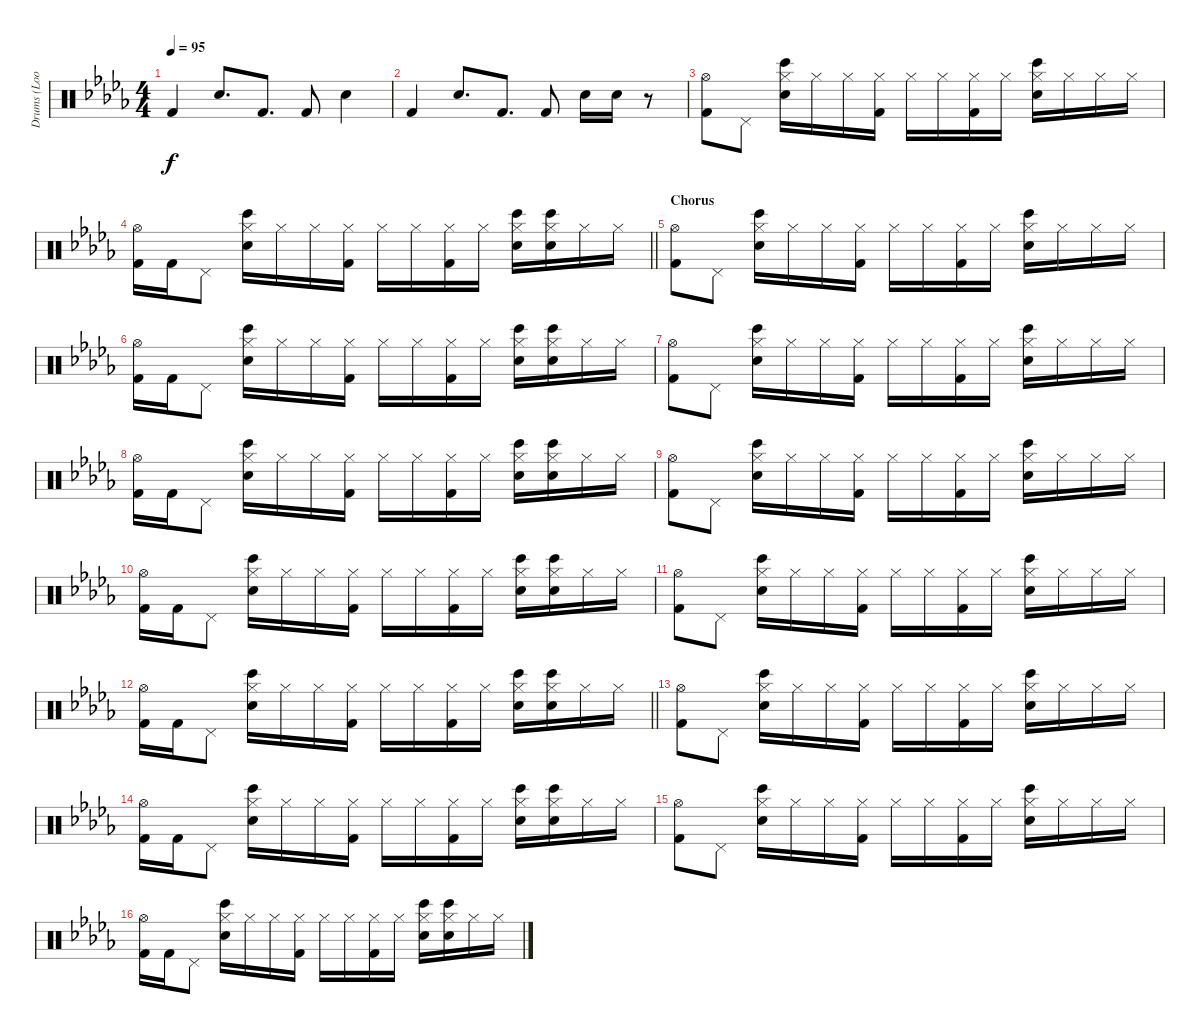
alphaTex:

\track ("Drums (Loops)" "Drums (Loo") {instrument percussion}
\staff {score}
\articulation defaults
\ts (4 4)
\tempo 95
\clef neutral
\ks db "Kick (hit) 2".4{dy f} "Hand Clap (hit)".8{d} "Kick (hit) 2".8{d} "Kick (hit) 2".8 "Hand Clap (hit)".4
|
"Kick (hit) 2".4 "Hand Clap (hit)".8{d} "Kick (hit) 2".8{d} "Kick (hit) 2".8 "Hand Clap (hit)".16 "Hand Clap (hit)".16 r.8 |
("Hi-Hat (open)" "Kick (hit) 2").8 "Pedal Hi-Hat (hit)".8 ("Hi-Hat (closed)" "Snare (hit) 2" "Bongo High (hit)").16 "Hi-Hat (closed)".16 "Hi-Hat (closed)".16 ("Hi-Hat (closed)" "Kick (hit) 2").16 "Hi-Hat (closed)".16 "Hi-Hat (closed)".16 ("Hi-Hat (closed)" "Kick (hit) 2").16 "Hi-Hat (closed)".16 ("Hi-Hat (closed)" "Snare (hit) 2" "Bongo High (hit)").16 "Hi-Hat (closed)".16 "Hi-Hat (closed)".16 "Hi-Hat (closed)".16 |
\barLineRight lightlight
("Hi-Hat (open)" "Kick (hit) 2").16 "Kick (hit) 2".16 "Pedal Hi-Hat (hit)".8 ("Hi-Hat (closed)" "Snare (hit) 2" "Bongo High (hit)").16 "Hi-Hat (closed)".16 "Hi-Hat (closed)".16 ("Hi-Hat (closed)" "Kick (hit) 2").16 "Hi-Hat (closed)".16 "Hi-Hat (closed)".16 ("Hi-Hat (closed)" "Kick (hit) 2").16 "Hi-Hat (closed)".16 ("Hi-Hat (closed)" "Snare (hit) 2" "Bongo High (hit)").16 ("Hi-Hat (closed)" "Snare (hit) 2" "Bongo High (hit)").16 "Hi-Hat (closed)".16 "Hi-Hat (closed)".16 |
\section ("" "Chorus")
("Hi-Hat (open)" "Kick (hit) 2").8 "Pedal Hi-Hat (hit)".8 ("Hi-Hat (closed)" "Snare (hit) 2" "Bongo High (hit)").16 "Hi-Hat (closed)".16 "Hi-Hat (closed)".16 ("Hi-Hat (closed)" "Kick (hit) 2").16 "Hi-Hat (closed)".16 "Hi-Hat (closed)".16 ("Hi-Hat (closed)" "Kick (hit) 2").16 "Hi-Hat (closed)".16 ("Hi-Hat (closed)" "Snare (hit) 2" "Bongo High (hit)").16 "Hi-Hat (closed)".16 "Hi-Hat (closed)".16 "Hi-Hat (closed)".16 |
("Hi-Hat (open)" "Kick (hit) 2").16 "Kick (hit) 2".16 "Pedal Hi-Hat (hit)".8 ("Hi-Hat (closed)" "Snare (hit) 2" "Bongo High (hit)").16 "Hi-Hat (closed)".16 "Hi-Hat (closed)".16 ("Hi-Hat (closed)" "Kick (hit) 2").16 "Hi-Hat (closed)".16 "Hi-Hat (closed)".16 ("Hi-Hat (closed)" "Kick (hit) 2").16 "Hi-Hat (closed)".16 ("Hi-Hat (closed)" "Snare (hit) 2" "Bongo High (hit)").16 ("Hi-Hat (closed)" "Snare (hit) 2" "Bongo High (hit)").16 "Hi-Hat (closed)".16 "Hi-Hat (closed)".16 |
("Hi-Hat (open)" "Kick (hit) 2").8 "Pedal Hi-Hat (hit)".8 ("Hi-Hat (closed)" "Snare (hit) 2" "Bongo High (hit)").16 "Hi-Hat (closed)".16 "Hi-Hat (closed)".16 ("Hi-Hat (closed)" "Kick (hit) 2").16 "Hi-Hat (closed)".16 "Hi-Hat (closed)".16 ("Hi-Hat (closed)" "Kick (hit) 2").16 "Hi-Hat (closed)".16 ("Hi-Hat (closed)" "Snare (hit) 2" "Bongo High (hit)").16 "Hi-Hat (closed)".16 "Hi-Hat (closed)".16 "Hi-Hat (closed)".16 |
("Hi-Hat (open)" "Kick (hit) 2").16 "Kick (hit) 2".16 "Pedal Hi-Hat (hit)".8 ("Hi-Hat (closed)" "Snare (hit) 2" "Bongo High (hit)").16 "Hi-Hat (closed)".16 "Hi-Hat (closed)".16 ("Hi-Hat (closed)" "Kick (hit) 2").16 "Hi-Hat (closed)".16 "Hi-Hat (closed)".16 ("Hi-Hat (closed)" "Kick (hit) 2").16 "Hi-Hat (closed)".16 ("Hi-Hat (closed)" "Snare (hit) 2" "Bongo High (hit)").16 ("Hi-Hat (closed)" "Snare (hit) 2" "Bongo High (hit)").16 "Hi-Hat (closed)".16 "Hi-Hat (closed)".16 |
("Hi-Hat (open)" "Kick (hit) 2").8 "Pedal Hi-Hat (hit)".8 ("Hi-Hat (closed)" "Snare (hit) 2" "Bongo High (hit)").16 "Hi-Hat (closed)".16 "Hi-Hat (closed)".16 ("Hi-Hat (closed)" "Kick (hit) 2").16 "Hi-Hat (closed)".16 "Hi-Hat (closed)".16 ("Hi-Hat (closed)" "Kick (hit) 2").16 "Hi-Hat (closed)".16 ("Hi-Hat (closed)" "Snare (hit) 2" "Bongo High (hit)").16 "Hi-Hat (closed)".16 "Hi-Hat (closed)".16 "Hi-Hat (closed)".16 |
("Hi-Hat (open)" "Kick (hit) 2").16 "Kick (hit) 2".16 "Pedal Hi-Hat (hit)".8 ("Hi-Hat (closed)" "Snare (hit) 2" "Bongo High (hit)").16 "Hi-Hat (closed)".16 "Hi-Hat (closed)".16 ("Hi-Hat (closed)" "Kick (hit) 2").16 "Hi-Hat (closed)".16 "Hi-Hat (closed)".16 ("Hi-Hat (closed)" "Kick (hit) 2").16 "Hi-Hat (closed)".16 ("Hi-Hat (closed)" "Snare (hit) 2" "Bongo High (hit)").16 ("Hi-Hat (closed)" "Snare (hit) 2" "Bongo High (hit)").16 "Hi-Hat (closed)".16 "Hi-Hat (closed)".16 |
("Hi-Hat (open)" "Kick (hit) 2").8 "Pedal Hi-Hat (hit)".8 ("Hi-Hat (closed)" "Snare (hit) 2" "Bongo High (hit)").16 "Hi-Hat (closed)".16 "Hi-Hat (closed)".16 ("Hi-Hat (closed)" "Kick (hit) 2").16 "Hi-Hat (closed)".16 "Hi-Hat (closed)".16 ("Hi-Hat (closed)" "Kick (hit) 2").16 "Hi-Hat (closed)".16 ("Hi-Hat (closed)" "Snare (hit) 2" "Bongo High (hit)").16 "Hi-Hat (closed)".16 "Hi-Hat (closed)".16 "Hi-Hat (closed)".16 |
\barLineRight lightlight
("Hi-Hat (open)" "Kick (hit) 2").16 "Kick (hit) 2".16 "Pedal Hi-Hat (hit)".8 ("Hi-Hat (closed)" "Snare (hit) 2" "Bongo High (hit)").16 "Hi-Hat (closed)".16 "Hi-Hat (closed)".16 ("Hi-Hat (closed)" "Kick (hit) 2").16 "Hi-Hat (closed)".16 "Hi-Hat (closed)".16 ("Hi-Hat (closed)" "Kick (hit) 2").16 "Hi-Hat (closed)".16 ("Hi-Hat (closed)" "Snare (hit) 2" "Bongo High (hit)").16 ("Hi-Hat (closed)" "Snare (hit) 2" "Bongo High (hit)").16 "Hi-Hat (closed)".16 "Hi-Hat (closed)".16 |
("Hi-Hat (open)" "Kick (hit) 2").8 "Pedal Hi-Hat (hit)".8 ("Hi-Hat (closed)" "Snare (hit) 2" "Bongo High (hit)").16 "Hi-Hat (closed)".16 "Hi-Hat (closed)".16 ("Hi-Hat (closed)" "Kick (hit) 2").16 "Hi-Hat (closed)".16 "Hi-Hat (closed)".16 ("Hi-Hat (closed)" "Kick (hit) 2").16 "Hi-Hat (closed)".16 ("Hi-Hat (closed)" "Snare (hit) 2" "Bongo High (hit)").16 "Hi-Hat (closed)".16 "Hi-Hat (closed)".16 "Hi-Hat (closed)".16 |
("Hi-Hat (open)" "Kick (hit) 2").16 "Kick (hit) 2".16 "Pedal Hi-Hat (hit)".8 ("Hi-Hat (closed)" "Snare (hit) 2" "Bongo High (hit)").16 "Hi-Hat (closed)".16 "Hi-Hat (closed)".16 ("Hi-Hat (closed)" "Kick (hit) 2").16 "Hi-Hat (closed)".16 "Hi-Hat (closed)".16 ("Hi-Hat (closed)" "Kick (hit) 2").16 "Hi-Hat (closed)".16 ("Hi-Hat (closed)" "Snare (hit) 2" "Bongo High (hit)").16 ("Hi-Hat (closed)" "Snare (hit) 2" "Bongo High (hit)").16 "Hi-Hat (closed)".16 "Hi-Hat (closed)".16 |
("Hi-Hat (open)" "Kick (hit) 2").8 "Pedal Hi-Hat (hit)".8 ("Hi-Hat (closed)" "Snare (hit) 2" "Bongo High (hit)").16 "Hi-Hat (closed)".16 "Hi-Hat (closed)".16 ("Hi-Hat (closed)" "Kick (hit) 2").16 "Hi-Hat (closed)".16 "Hi-Hat (closed)".16 ("Hi-Hat (closed)" "Kick (hit) 2").16 "Hi-Hat (closed)".16 ("Hi-Hat (closed)" "Snare (hit) 2" "Bongo High (hit)").16 "Hi-Hat (closed)".16 "Hi-Hat (closed)".16 "Hi-Hat (closed)".16 |
("Hi-Hat (open)" "Kick (hit) 2").16 "Kick (hit) 2".16 "Pedal Hi-Hat (hit)".8 ("Hi-Hat (closed)" "Snare (hit) 2" "Bongo High (hit)").16 "Hi-Hat (closed)".16 "Hi-Hat (closed)".16 ("Hi-Hat (closed)" "Kick (hit) 2").16 "Hi-Hat (closed)".16 "Hi-Hat (closed)".16 ("Hi-Hat (closed)" "Kick (hit) 2").16 "Hi-Hat (closed)".16 ("Hi-Hat (closed)" "Snare (hit) 2" "Bongo High (hit)").16 ("Hi-Hat (closed)" "Snare (hit) 2" "Bongo High (hit)").16 "Hi-Hat (closed)".16 "Hi-Hat (closed)".16
